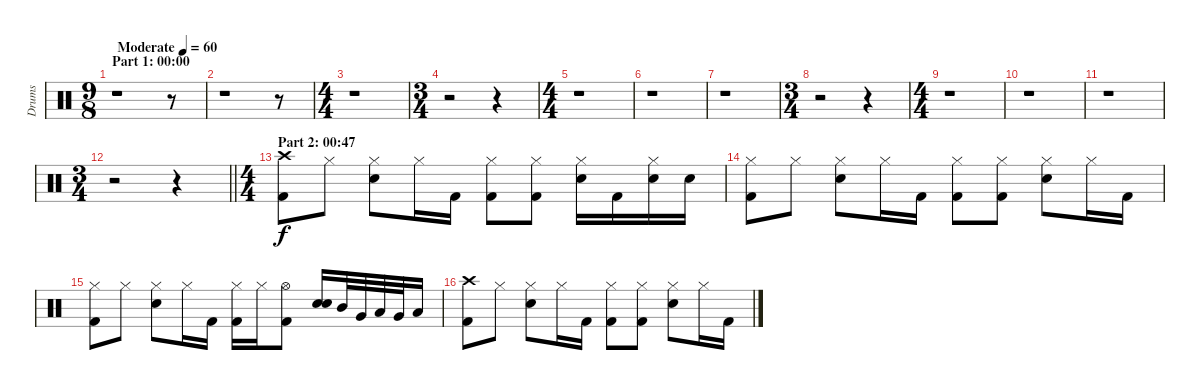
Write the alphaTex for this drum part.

\track ("Drums" "Drums") {instrument percussion}
\staff {score}
\articulation defaults
\ts (9 8)
\section ("" "Part 1: 00:00")
\tempo (60 "Moderate")
\clef neutral
\ks c
r.1{dy f} r.8 |
r.1 r.8 |
\ts (4 4)
r.1 |
\ts (3 4)
r.2 r.4 |
\ts (4 4)
r.1 |
r.1 |
r.1 |
\ts (3 4)
r.2 r.4 |
\ts (4 4)
r.1 |
r.1 |
r.1 |
\ts (3 4)
\barLineRight lightlight
r.2 r.4 |
\ts (4 4)
\section ("" "Part 2: 00:47")
("Crash high (hit)" "Kick (hit) 2").8 "Hi-Hat (closed)".8 ("Hi-Hat (closed)" "Electric Snare (hit)").8 "Hi-Hat (closed)".16 "Kick (hit) 2".16 ("Hi-Hat (closed)" "Kick (hit) 2").8 ("Hi-Hat (closed)" "Kick (hit) 2").8 ("Hi-Hat (closed)" "Electric Snare (hit)").16 "Kick (hit) 2".16 ("Hi-Hat (closed)" "Electric Snare (hit)").16 "Electric Snare (hit)".16 |
("Hi-Hat (closed)" "Kick (hit) 2").8 "Hi-Hat (closed)".8 ("Hi-Hat (closed)" "Electric Snare (hit)").8 "Hi-Hat (closed)".16 "Kick (hit) 2".16 ("Hi-Hat (closed)" "Kick (hit) 2").8 ("Hi-Hat (closed)" "Kick (hit) 2").8 ("Hi-Hat (closed)" "Electric Snare (hit)").8 "Hi-Hat (closed)".16 "Kick (hit) 2".16 |
("Hi-Hat (closed)" "Kick (hit) 2").8 "Hi-Hat (closed)".8 ("Hi-Hat (closed)" "Electric Snare (hit)").8 "Hi-Hat (closed)".16 "Kick (hit) 2".16 ("Hi-Hat (closed)" "Kick (hit) 2").16 "Hi-Hat (closed)".16 ("Hi-Hat (open)" "Kick (hit) 2").8 ("Electric Snare (hit)" "Electric Snare (hit)").16{bu 60} "Mid Tom (hit)".32 "Very Low Tom (hit)".32 "Low Tom (hit)".32 "Very Low Tom (hit)".32 "Low Tom (hit)".16 |
("Crash high (hit)" "Kick (hit) 2").8 "Hi-Hat (closed)".8 ("Hi-Hat (closed)" "Electric Snare (hit)").8 "Hi-Hat (closed)".16 "Kick (hit) 2".16 ("Hi-Hat (closed)" "Kick (hit) 2").8 ("Hi-Hat (closed)" "Kick (hit) 2").8 ("Hi-Hat (closed)" "Electric Snare (hit)").8 "Hi-Hat (closed)".16 "Kick (hit) 2".16
